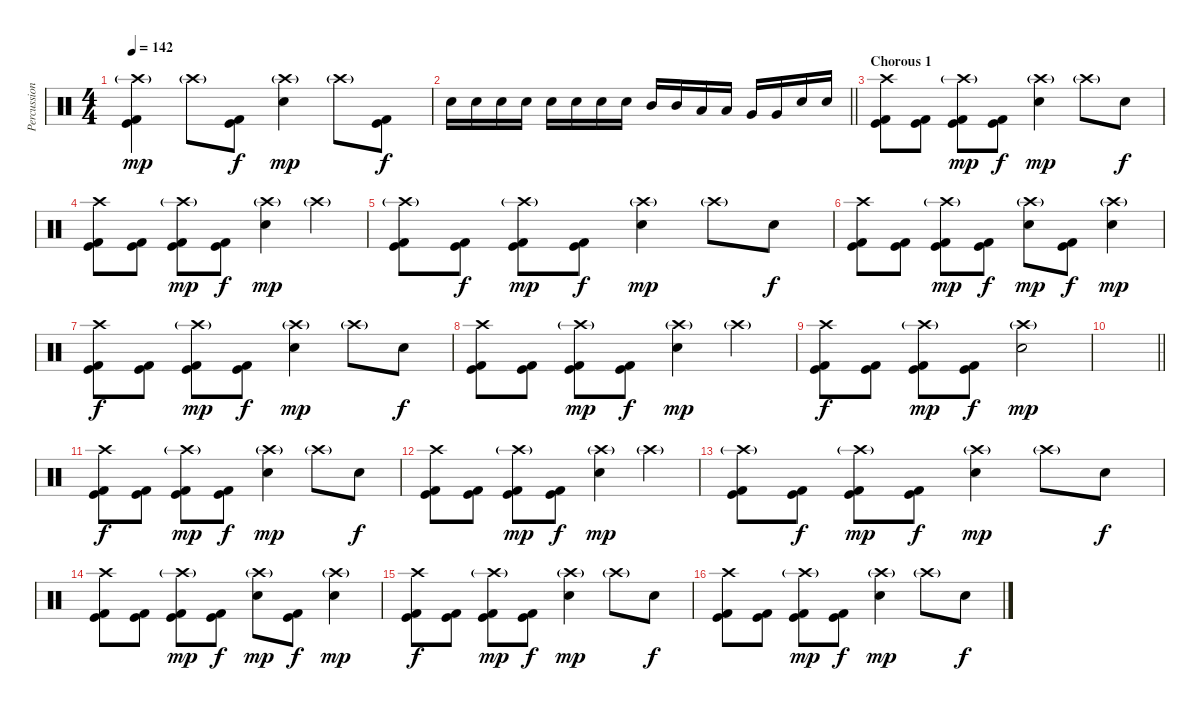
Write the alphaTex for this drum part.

\track ("Percussion" "Percussion") {instrument percussion}
\staff {score}
\articulation defaults
\ts (4 4)
\tempo 142
\clef neutral
\ks c
("Crash high (hit)"{g} "Kick (hit)" "Kick (hit) 2").4{dy mp} "Crash high (hit)"{g}.8 ("Kick (hit)" "Kick (hit) 2").8{dy f} ("Crash high (hit)"{g} "Electric Snare (hit)").4{dy mp} "Crash high (hit)"{g}.8 ("Kick (hit)" "Kick (hit) 2").8{dy f} |
\barLineRight lightlight "Electric Snare (hit)".16 "Electric Snare (hit)".16 "Electric Snare (hit)".16 "Electric Snare (hit)".16 "Electric Snare (hit)".16 "Electric Snare (hit)".16 "Electric Snare (hit)".16 "Electric Snare (hit)".16 "Mid Tom (hit)".16 "Mid Tom (hit)".16 "Low Tom (hit)".16 "Low Tom (hit)".16 "Very Low Tom (hit)".16 "Very Low Tom (hit)".16 "Electric Snare (hit)".16 "Electric Snare (hit)".16
|
\section ("" "Chorous 1")
("Crash high (hit)" "Kick (hit)" "Kick (hit) 2").8 ("Kick (hit)" "Kick (hit) 2").8 ("Crash high (hit)"{g} "Kick (hit)" "Kick (hit) 2").8{dy mp} ("Kick (hit)" "Kick (hit) 2").8{dy f} ("Crash high (hit)"{g} "Electric Snare (hit)").4{dy mp} "Crash high (hit)"{g}.8 "Electric Snare (hit)".8{dy f} |
("Crash high (hit)" "Kick (hit)" "Kick (hit) 2").8 ("Kick (hit)" "Kick (hit) 2").8 ("Crash high (hit)"{g} "Kick (hit)" "Kick (hit) 2").8{dy mp} ("Kick (hit)" "Kick (hit) 2").8{dy f} ("Crash high (hit)"{g} "Electric Snare (hit)").4{dy mp} "Crash high (hit)"{g}.4 |
("Crash high (hit)"{g} "Kick (hit)" "Kick (hit) 2").8 ("Kick (hit)" "Kick (hit) 2").8{dy f} ("Crash high (hit)"{g} "Kick (hit)" "Kick (hit) 2").8{dy mp} ("Kick (hit)" "Kick (hit) 2").8{dy f} ("Crash high (hit)"{g} "Electric Snare (hit)").4{dy mp} "Crash high (hit)"{g}.8 "Electric Snare (hit)".8{dy f} |
("Crash high (hit)" "Kick (hit)" "Kick (hit) 2").8 ("Kick (hit)" "Kick (hit) 2").8 ("Crash high (hit)"{g} "Kick (hit)" "Kick (hit) 2").8{dy mp} ("Kick (hit)" "Kick (hit) 2").8{dy f} ("Crash high (hit)"{g} "Electric Snare (hit)").8{dy mp} ("Kick (hit)" "Kick (hit) 2").8{dy f} ("Crash high (hit)"{g} "Electric Snare (hit)").4{dy mp} |
("Crash high (hit)" "Kick (hit)" "Kick (hit) 2").8{dy f} ("Kick (hit)" "Kick (hit) 2").8 ("Crash high (hit)"{g} "Kick (hit)" "Kick (hit) 2").8{dy mp} ("Kick (hit)" "Kick (hit) 2").8{dy f} ("Crash high (hit)"{g} "Electric Snare (hit)").4{dy mp} "Crash high (hit)"{g}.8 "Electric Snare (hit)".8{dy f} |
("Crash high (hit)" "Kick (hit)" "Kick (hit) 2").8 ("Kick (hit)" "Kick (hit) 2").8 ("Crash high (hit)"{g} "Kick (hit)" "Kick (hit) 2").8{dy mp} ("Kick (hit)" "Kick (hit) 2").8{dy f} ("Crash high (hit)"{g} "Electric Snare (hit)").4{dy mp} "Crash high (hit)"{g}.4 |
("Crash high (hit)" "Kick (hit)" "Kick (hit) 2").8{dy f} ("Kick (hit)" "Kick (hit) 2").8 ("Crash high (hit)"{g} "Kick (hit)" "Kick (hit) 2").8{dy mp} ("Kick (hit)" "Kick (hit) 2").8{dy f} ("Crash high (hit)"{g} "Electric Snare (hit)").2{dy mp} |
\barLineRight lightlight
|
\section ("" "")
("Crash high (hit)" "Kick (hit)" "Kick (hit) 2").8{dy f} ("Kick (hit)" "Kick (hit) 2").8 ("Crash high (hit)"{g} "Kick (hit)" "Kick (hit) 2").8{dy mp} ("Kick (hit)" "Kick (hit) 2").8{dy f} ("Crash high (hit)"{g} "Electric Snare (hit)").4{dy mp} "Crash high (hit)"{g}.8 "Electric Snare (hit)".8{dy f} |
("Crash high (hit)" "Kick (hit)" "Kick (hit) 2").8 ("Kick (hit)" "Kick (hit) 2").8 ("Crash high (hit)"{g} "Kick (hit)" "Kick (hit) 2").8{dy mp} ("Kick (hit)" "Kick (hit) 2").8{dy f} ("Crash high (hit)"{g} "Electric Snare (hit)").4{dy mp} "Crash high (hit)"{g}.4 |
("Crash high (hit)"{g} "Kick (hit)" "Kick (hit) 2").8 ("Kick (hit)" "Kick (hit) 2").8{dy f} ("Crash high (hit)"{g} "Kick (hit)" "Kick (hit) 2").8{dy mp} ("Kick (hit)" "Kick (hit) 2").8{dy f} ("Crash high (hit)"{g} "Electric Snare (hit)").4{dy mp} "Crash high (hit)"{g}.8 "Electric Snare (hit)".8{dy f} |
("Crash high (hit)" "Kick (hit)" "Kick (hit) 2").8 ("Kick (hit)" "Kick (hit) 2").8 ("Crash high (hit)"{g} "Kick (hit)" "Kick (hit) 2").8{dy mp} ("Kick (hit)" "Kick (hit) 2").8{dy f} ("Crash high (hit)"{g} "Electric Snare (hit)").8{dy mp} ("Kick (hit)" "Kick (hit) 2").8{dy f} ("Crash high (hit)"{g} "Electric Snare (hit)").4{dy mp} |
("Crash high (hit)" "Kick (hit)" "Kick (hit) 2").8{dy f} ("Kick (hit)" "Kick (hit) 2").8 ("Crash high (hit)"{g} "Kick (hit)" "Kick (hit) 2").8{dy mp} ("Kick (hit)" "Kick (hit) 2").8{dy f} ("Crash high (hit)"{g} "Electric Snare (hit)").4{dy mp} "Crash high (hit)"{g}.8 "Electric Snare (hit)".8{dy f} |
("Crash high (hit)" "Kick (hit)" "Kick (hit) 2").8 ("Kick (hit)" "Kick (hit) 2").8 ("Crash high (hit)"{g} "Kick (hit)" "Kick (hit) 2").8{dy mp} ("Kick (hit)" "Kick (hit) 2").8{dy f} ("Crash high (hit)"{g} "Electric Snare (hit)").4{dy mp} "Crash high (hit)"{g}.8 "Electric Snare (hit)".8{dy f}
